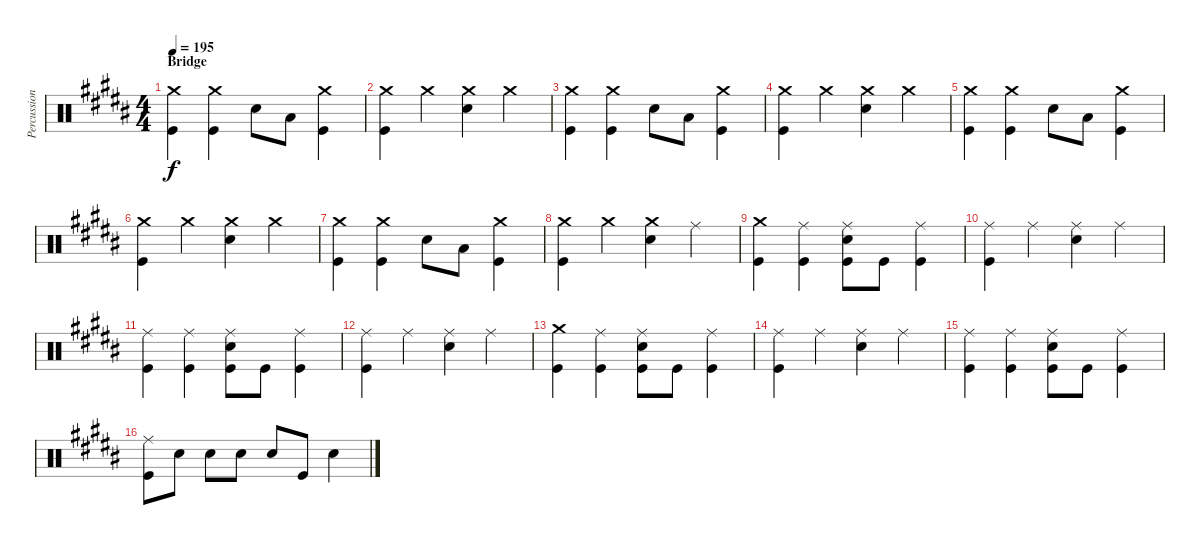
\track ("Percussion" "Percussion") {instrument percussion}
\staff {score}
\articulation defaults
\ts (4 4)
\section ("" "Bridge")
\tempo 195
\clef neutral
\ks b
("Crash medium (hit)" "Kick (hit)").4{dy f} ("Crash medium (hit)" "Kick (hit)").4 "Electric Snare (hit)".8 "Low Tom (hit)".8 ("Crash medium (hit)" "Kick (hit)").4 |
("Crash medium (hit)" "Kick (hit)").4 "Crash medium (hit)".4 ("Crash medium (hit)" "Electric Snare (hit)").4 "Crash medium (hit)".4 |
("Crash medium (hit)" "Kick (hit)").4 ("Crash medium (hit)" "Kick (hit)").4 "Electric Snare (hit)".8 "Low Tom (hit)".8 ("Crash medium (hit)" "Kick (hit)").4 |
("Crash medium (hit)" "Kick (hit)").4 "Crash medium (hit)".4 ("Crash medium (hit)" "Electric Snare (hit)").4 "Crash medium (hit)".4 |
("Crash medium (hit)" "Kick (hit)").4 ("Crash medium (hit)" "Kick (hit)").4 "Electric Snare (hit)".8 "Low Tom (hit)".8 ("Crash medium (hit)" "Kick (hit)").4 |
("Crash medium (hit)" "Kick (hit)").4 "Crash medium (hit)".4 ("Crash medium (hit)" "Electric Snare (hit)").4 "Crash medium (hit)".4 |
("Crash medium (hit)" "Kick (hit)").4 ("Crash medium (hit)" "Kick (hit)").4 "Electric Snare (hit)".8 "Low Tom (hit)".8 ("Crash medium (hit)" "Kick (hit)").4 |
("Crash medium (hit)" "Kick (hit)").4 "Crash medium (hit)".4 ("Crash medium (hit)" "Electric Snare (hit)").4 "Ride (middle)".4 |
("Crash medium (hit)" "Kick (hit)").4 ("Ride (middle)" "Kick (hit)").4 ("Ride (middle)" "Electric Snare (hit)" "Kick (hit)").8 "Kick (hit)".8 ("Ride (middle)" "Kick (hit)").4 |
("Ride (middle)" "Kick (hit)").4 "Ride (middle)".4 ("Ride (middle)" "Electric Snare (hit)").4 "Ride (middle)".4 |
("Ride (middle)" "Kick (hit)").4 ("Ride (middle)" "Kick (hit)").4 ("Ride (middle)" "Electric Snare (hit)" "Kick (hit)").8 "Kick (hit)".8 ("Ride (middle)" "Kick (hit)").4 |
("Ride (middle)" "Kick (hit)").4 "Ride (middle)".4 ("Ride (middle)" "Electric Snare (hit)").4 "Ride (middle)".4 |
("Crash medium (hit)" "Kick (hit)").4 ("Ride (middle)" "Kick (hit)").4 ("Ride (middle)" "Electric Snare (hit)" "Kick (hit)").8 "Kick (hit)".8 ("Ride (middle)" "Kick (hit)").4 |
("Ride (middle)" "Kick (hit)").4 "Ride (middle)".4 ("Ride (middle)" "Electric Snare (hit)").4 "Ride (middle)".4 |
("Ride (middle)" "Kick (hit)").4 ("Ride (middle)" "Kick (hit)").4 ("Ride (middle)" "Electric Snare (hit)" "Kick (hit)").8 "Kick (hit)".8 ("Ride (middle)" "Kick (hit)").4 |
("Ride (middle)" "Kick (hit)").8 "Electric Snare (hit)".8 "Electric Snare (hit)".8 "Electric Snare (hit)".8 "Electric Snare (hit)".8 "Kick (hit)".8 "Electric Snare (hit)".4
